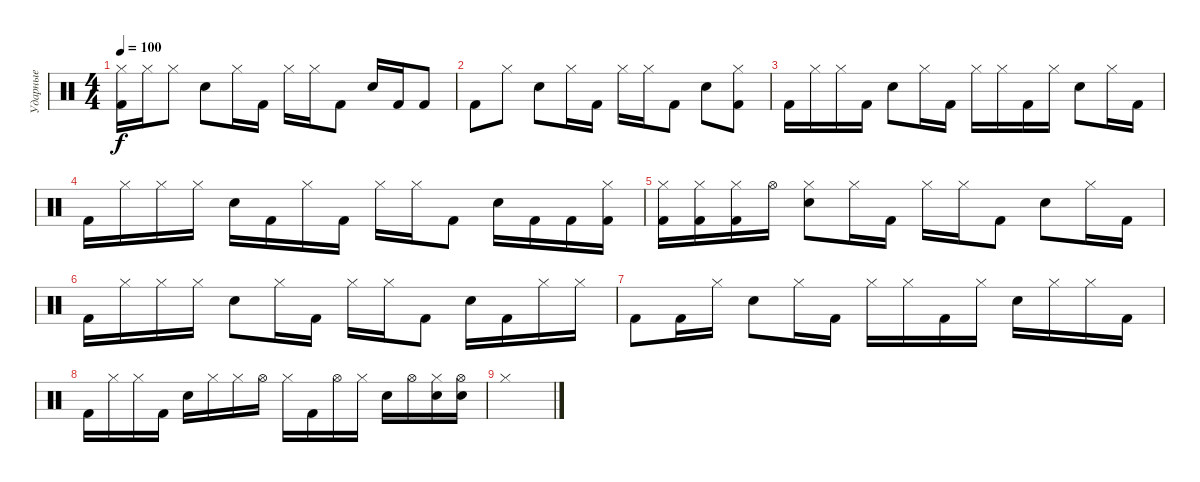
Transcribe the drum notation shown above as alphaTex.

\track ("Ударные" "Ударные") {instrument percussion}
\staff {score}
\articulation defaults
\ts (4 4)
\tempo 100
\clef neutral
\ks c
("Kick (hit) 2" "Hi-Hat (closed)").16{dy f} "Hi-Hat (closed)".16 "Hi-Hat (closed)".8 "Electric Snare (hit)".8 "Hi-Hat (closed)".16 "Kick (hit) 2".16 "Hi-Hat (closed)".16 "Hi-Hat (closed)".16 "Kick (hit) 2".8 "Electric Snare (hit)".16 "Kick (hit) 2".16 "Kick (hit) 2".8 |
"Kick (hit) 2".8 "Hi-Hat (closed)".8 "Electric Snare (hit)".8 "Hi-Hat (closed)".16 "Kick (hit) 2".16 "Hi-Hat (closed)".16 "Hi-Hat (closed)".16 "Kick (hit) 2".8 "Electric Snare (hit)".8 ("Kick (hit) 2" "Hi-Hat (closed)").8 |
"Kick (hit) 2".16 "Hi-Hat (closed)".16 "Hi-Hat (closed)".16 "Kick (hit) 2".16 "Electric Snare (hit)".8 "Hi-Hat (closed)".16 "Kick (hit) 2".16 "Hi-Hat (closed)".16 "Hi-Hat (closed)".16 "Kick (hit) 2".16 "Hi-Hat (closed)".16 "Electric Snare (hit)".8 "Hi-Hat (closed)".16 "Kick (hit) 2".16 |
"Kick (hit) 2".16 "Hi-Hat (closed)".16 "Hi-Hat (closed)".16 "Hi-Hat (closed)".16 "Electric Snare (hit)".16 "Kick (hit) 2".16 "Hi-Hat (closed)".16 "Kick (hit) 2".16 "Hi-Hat (closed)".16 "Hi-Hat (closed)".16 "Kick (hit) 2".8 "Electric Snare (hit)".16 "Kick (hit) 2".16 "Kick (hit) 2".16 ("Kick (hit) 2" "Hi-Hat (closed)").16 |
("Kick (hit) 2" "Hi-Hat (closed)").16 ("Kick (hit) 2" "Hi-Hat (closed)").16 ("Kick (hit) 2" "Hi-Hat (closed)").16 "Hi-Hat (open)".16 ("Electric Snare (hit)" "Hi-Hat (closed)").8 "Hi-Hat (closed)".16 "Kick (hit) 2".16 "Hi-Hat (closed)".16 "Hi-Hat (closed)".16 "Kick (hit) 2".8 "Electric Snare (hit)".8 "Hi-Hat (closed)".16 "Kick (hit) 2".16 |
"Kick (hit) 2".16 "Hi-Hat (closed)".16 "Hi-Hat (closed)".16 "Hi-Hat (closed)".16 "Electric Snare (hit)".8 "Hi-Hat (closed)".16 "Kick (hit) 2".16 "Hi-Hat (closed)".16 "Hi-Hat (closed)".16 "Kick (hit) 2".8 "Electric Snare (hit)".16 "Kick (hit) 2".16 "Hi-Hat (closed)".16 "Hi-Hat (closed)".16 |
"Kick (hit) 2".8 "Kick (hit) 2".16 "Hi-Hat (closed)".16 "Electric Snare (hit)".8 "Hi-Hat (closed)".16 "Kick (hit) 2".16 "Hi-Hat (closed)".16 "Hi-Hat (closed)".16 "Kick (hit) 2".16 "Hi-Hat (closed)".16 "Electric Snare (hit)".16 "Hi-Hat (closed)".16 "Hi-Hat (closed)".16 "Kick (hit) 2".16 |
"Kick (hit) 2".16 "Hi-Hat (closed)".16 "Hi-Hat (closed)".16 "Kick (hit) 2".16 "Electric Snare (hit)".16 "Hi-Hat (closed)".16 "Hi-Hat (closed)".16 "Hi-Hat (open)".16 "Hi-Hat (closed)".16 "Kick (hit) 2".16 "Hi-Hat (open)".16 "Hi-Hat (closed)".16 "Electric Snare (hit)".16 "Hi-Hat (open)".16 ("Hi-Hat (closed)" "Electric Snare (hit)").16 ("Hi-Hat (open)" "Electric Snare (hit)").16 |
"Hi-Hat (closed)".1
